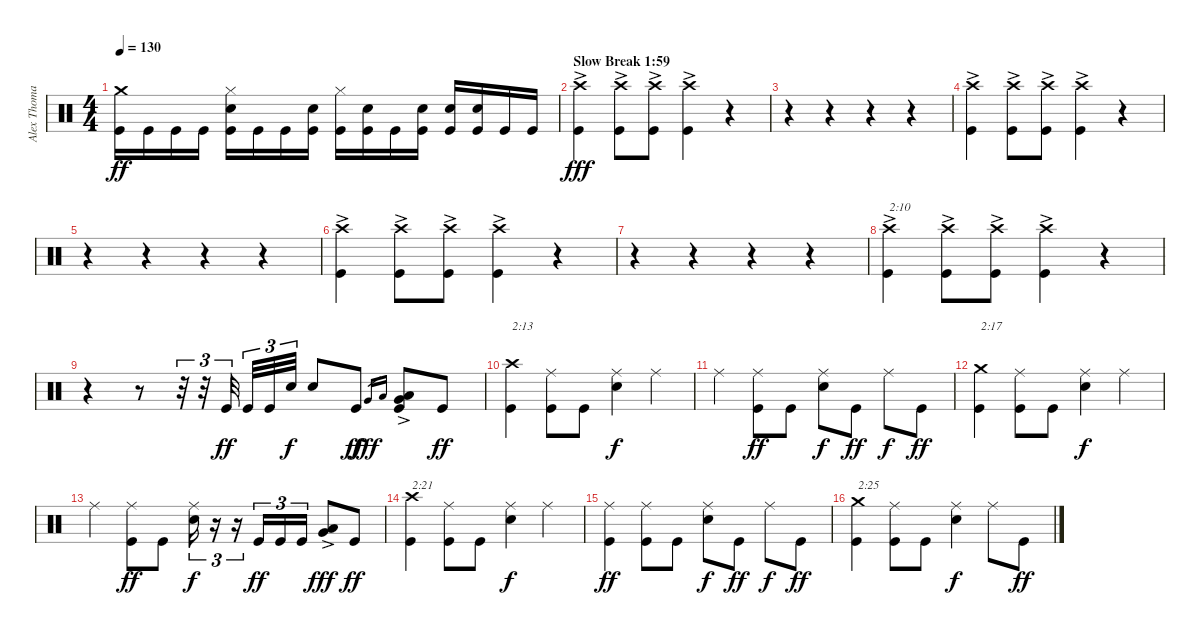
\track ("Alex Thomas (Drums)" "Alex Thoma") {instrument percussion}
\staff {score}
\articulation defaults
\ts (4 4)
\tempo 130
\clef neutral
\ks c
("Kick (hit)" "Crash medium (hit)").16{dy ff} "Kick (hit)".16 "Kick (hit)".16 "Kick (hit)".16 ("Kick (hit)" "Electric Snare (hit)" "Hi-Hat (closed)").16 "Kick (hit)".16 "Kick (hit)".16 ("Kick (hit)" "Electric Snare (hit)").16 ("Kick (hit)" "Hi-Hat (closed)").16 ("Kick (hit)" "Electric Snare (hit)").16 "Kick (hit)".16 ("Kick (hit)" "Electric Snare (hit)").16 ("Kick (hit)" "Electric Snare (hit)").16 ("Kick (hit)" "Electric Snare (hit)").16 "Kick (hit)".16 "Kick (hit)".16 |
\section ("" "Slow Break 1:59")
("Kick (hit)" "Crash high (hit)"{ac}).4{dy fff} ("Kick (hit)" "Crash high (hit)"{ac}).8 ("Kick (hit)" "Crash high (hit)"{ac}).8 ("Kick (hit)" "Crash high (hit)"{ac}).4 r.4 |
r.4 r.4 r.4 r.4 |
("Kick (hit)" "Crash high (hit)"{ac}).4 ("Kick (hit)" "Crash high (hit)"{ac}).8 ("Kick (hit)" "Crash high (hit)"{ac}).8 ("Kick (hit)" "Crash high (hit)"{ac}).4 r.4 |
r.4 r.4 r.4 r.4 |
("Kick (hit)" "Crash high (hit)"{ac}).4 ("Kick (hit)" "Crash high (hit)"{ac}).8 ("Kick (hit)" "Crash high (hit)"{ac}).8 ("Kick (hit)" "Crash high (hit)"{ac}).4 r.4 |
r.4 r.4 r.4 r.4 |
("Kick (hit)" "Crash high (hit)"{ac}).4{txt "2:10"} ("Kick (hit)" "Crash high (hit)"{ac}).8 ("Kick (hit)" "Crash high (hit)"{ac}).8 ("Kick (hit)" "Crash high (hit)"{ac}).4 r.4 |
r.4 r.8 r.32{tu (3 2)} r.32{tu (3 2)} "Kick (hit)".32{tu (3 2) dy ff} "Kick (hit)".32{tu (3 2)} "Kick (hit)".32{tu (3 2)} "Electric Snare (hit)".32{tu (3 2) dy f} "Electric Snare (hit)".8 "Kick (hit)".8{dy ff} "Very Low Tom (hit)".16{gr dy fff} "Low Tom (hit)".16{gr} ("Kick (hit)" "Very Low Tom (hit)"{ac} "Low Tom (hit)"{ac}).8 "Kick (hit)".8{dy ff} |
("Kick (hit)" "Crash high (hit)").4{txt "2:13"} ("Kick (hit)" "Ride (middle)").8 "Kick (hit)".8 ("Electric Snare (hit)" "Ride (middle)").4{dy f} "Ride (middle)".4 |
"Ride (middle)".4 ("Kick (hit)" "Ride (middle)").8{dy ff} "Kick (hit)".8 ("Electric Snare (hit)" "Ride (middle)").8{dy f} "Kick (hit)".8{dy ff} "Ride (middle)".8{dy f} "Kick (hit)".8{dy ff} |
("Kick (hit)" "Crash medium (hit)").4{txt "2:17"} ("Kick (hit)" "Ride (middle)").8 "Kick (hit)".8 ("Electric Snare (hit)" "Ride (middle)").4{dy f} "Ride (middle)".4 |
"Ride (middle)".4 ("Kick (hit)" "Ride (middle)").8{dy ff} "Kick (hit)".8 ("Electric Snare (hit)" "Ride (middle)").16{tu (3 2) dy f} r.16{tu (3 2)} r.16{tu (3 2)} "Kick (hit)".16{tu (3 2) dy ff} "Kick (hit)".16{tu (3 2)} "Kick (hit)".16{tu (3 2)} ("Low Tom (hit)"{ac} "Very Low Tom (hit)"{ac}).8{dy fff} "Kick (hit)".8{dy ff} |
("Kick (hit)" "Crash high (hit)").4{txt "2:21"} ("Kick (hit)" "Ride (middle)").8 "Kick (hit)".8 ("Electric Snare (hit)" "Ride (middle)").4{dy f} "Ride (middle)".4 |
("Kick (hit)" "Ride (middle)").4{dy ff} ("Kick (hit)" "Ride (middle)").8 "Kick (hit)".8 ("Electric Snare (hit)" "Ride (middle)").8{dy f} "Kick (hit)".8{dy ff} "Ride (middle)".8{dy f} "Kick (hit)".8{dy ff} |
("Kick (hit)" "Crash medium (hit)").4{txt "2:25"} ("Kick (hit)" "Ride (middle)").8 "Kick (hit)".8 ("Electric Snare (hit)" "Ride (middle)").4{dy f} "Ride (middle)".8 "Kick (hit)".8{dy ff}
